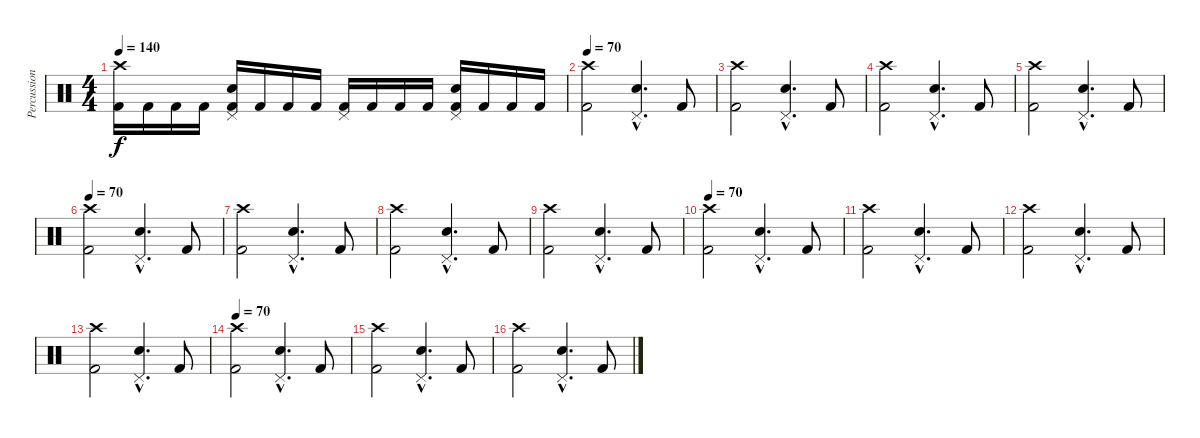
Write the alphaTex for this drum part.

\track ("Percussion" "Percussion") {instrument percussion}
\staff {score}
\articulation defaults
\ts (4 4)
\tempo 140
\clef neutral
\ks c
("Crash high (hit)" "Kick (hit) 2").16{dy f} "Kick (hit) 2".16 "Kick (hit) 2".16 "Kick (hit) 2".16 ("Pedal Hi-Hat (hit)" "Electric Snare (hit)" "Kick (hit) 2").16 "Kick (hit) 2".16 "Kick (hit) 2".16 "Kick (hit) 2".16 ("Pedal Hi-Hat (hit)" "Kick (hit) 2").16 "Kick (hit) 2".16 "Kick (hit) 2".16 "Kick (hit) 2".16 ("Pedal Hi-Hat (hit)" "Electric Snare (hit)" "Kick (hit) 2").16 "Kick (hit) 2".16 "Kick (hit) 2".16 "Kick (hit) 2".16 |
\section ("" "")
\tempo 70
("Crash high (hit)" "Kick (hit) 2").2 ("Pedal Hi-Hat (hit)"{hac} "Snare (hit) 2"{hac}).4{d} "Kick (hit) 2".8 |
("Crash high (hit)" "Kick (hit) 2").2 ("Pedal Hi-Hat (hit)"{hac} "Snare (hit) 2"{hac}).4{d} "Kick (hit) 2".8 |
("Crash high (hit)" "Kick (hit) 2").2 ("Pedal Hi-Hat (hit)"{hac} "Snare (hit) 2"{hac}).4{d} "Kick (hit) 2".8 |
("Crash high (hit)" "Kick (hit) 2").2 ("Pedal Hi-Hat (hit)"{hac} "Snare (hit) 2"{hac}).4{d} "Kick (hit) 2".8 |
\tempo 70
("Crash high (hit)" "Kick (hit) 2").2 ("Pedal Hi-Hat (hit)"{hac} "Snare (hit) 2"{hac}).4{d} "Kick (hit) 2".8 |
("Crash high (hit)" "Kick (hit) 2").2 ("Pedal Hi-Hat (hit)"{hac} "Snare (hit) 2"{hac}).4{d} "Kick (hit) 2".8 |
("Crash high (hit)" "Kick (hit) 2").2 ("Pedal Hi-Hat (hit)"{hac} "Snare (hit) 2"{hac}).4{d} "Kick (hit) 2".8 |
("Crash high (hit)" "Kick (hit) 2").2 ("Pedal Hi-Hat (hit)"{hac} "Snare (hit) 2"{hac}).4{d} "Kick (hit) 2".8 |
\tempo 70
("Crash high (hit)" "Kick (hit) 2").2 ("Pedal Hi-Hat (hit)"{hac} "Snare (hit) 2"{hac}).4{d} "Kick (hit) 2".8 |
("Crash high (hit)" "Kick (hit) 2").2 ("Pedal Hi-Hat (hit)"{hac} "Snare (hit) 2"{hac}).4{d} "Kick (hit) 2".8 |
("Crash high (hit)" "Kick (hit) 2").2 ("Pedal Hi-Hat (hit)"{hac} "Snare (hit) 2"{hac}).4{d} "Kick (hit) 2".8 |
("Crash high (hit)" "Kick (hit) 2").2 ("Pedal Hi-Hat (hit)"{hac} "Snare (hit) 2"{hac}).4{d} "Kick (hit) 2".8 |
\tempo 70
("Crash high (hit)" "Kick (hit) 2").2 ("Pedal Hi-Hat (hit)"{hac} "Snare (hit) 2"{hac}).4{d} "Kick (hit) 2".8 |
("Crash high (hit)" "Kick (hit) 2").2 ("Pedal Hi-Hat (hit)"{hac} "Snare (hit) 2"{hac}).4{d} "Kick (hit) 2".8 |
("Crash high (hit)" "Kick (hit) 2").2 ("Pedal Hi-Hat (hit)"{hac} "Snare (hit) 2"{hac}).4{d} "Kick (hit) 2".8
